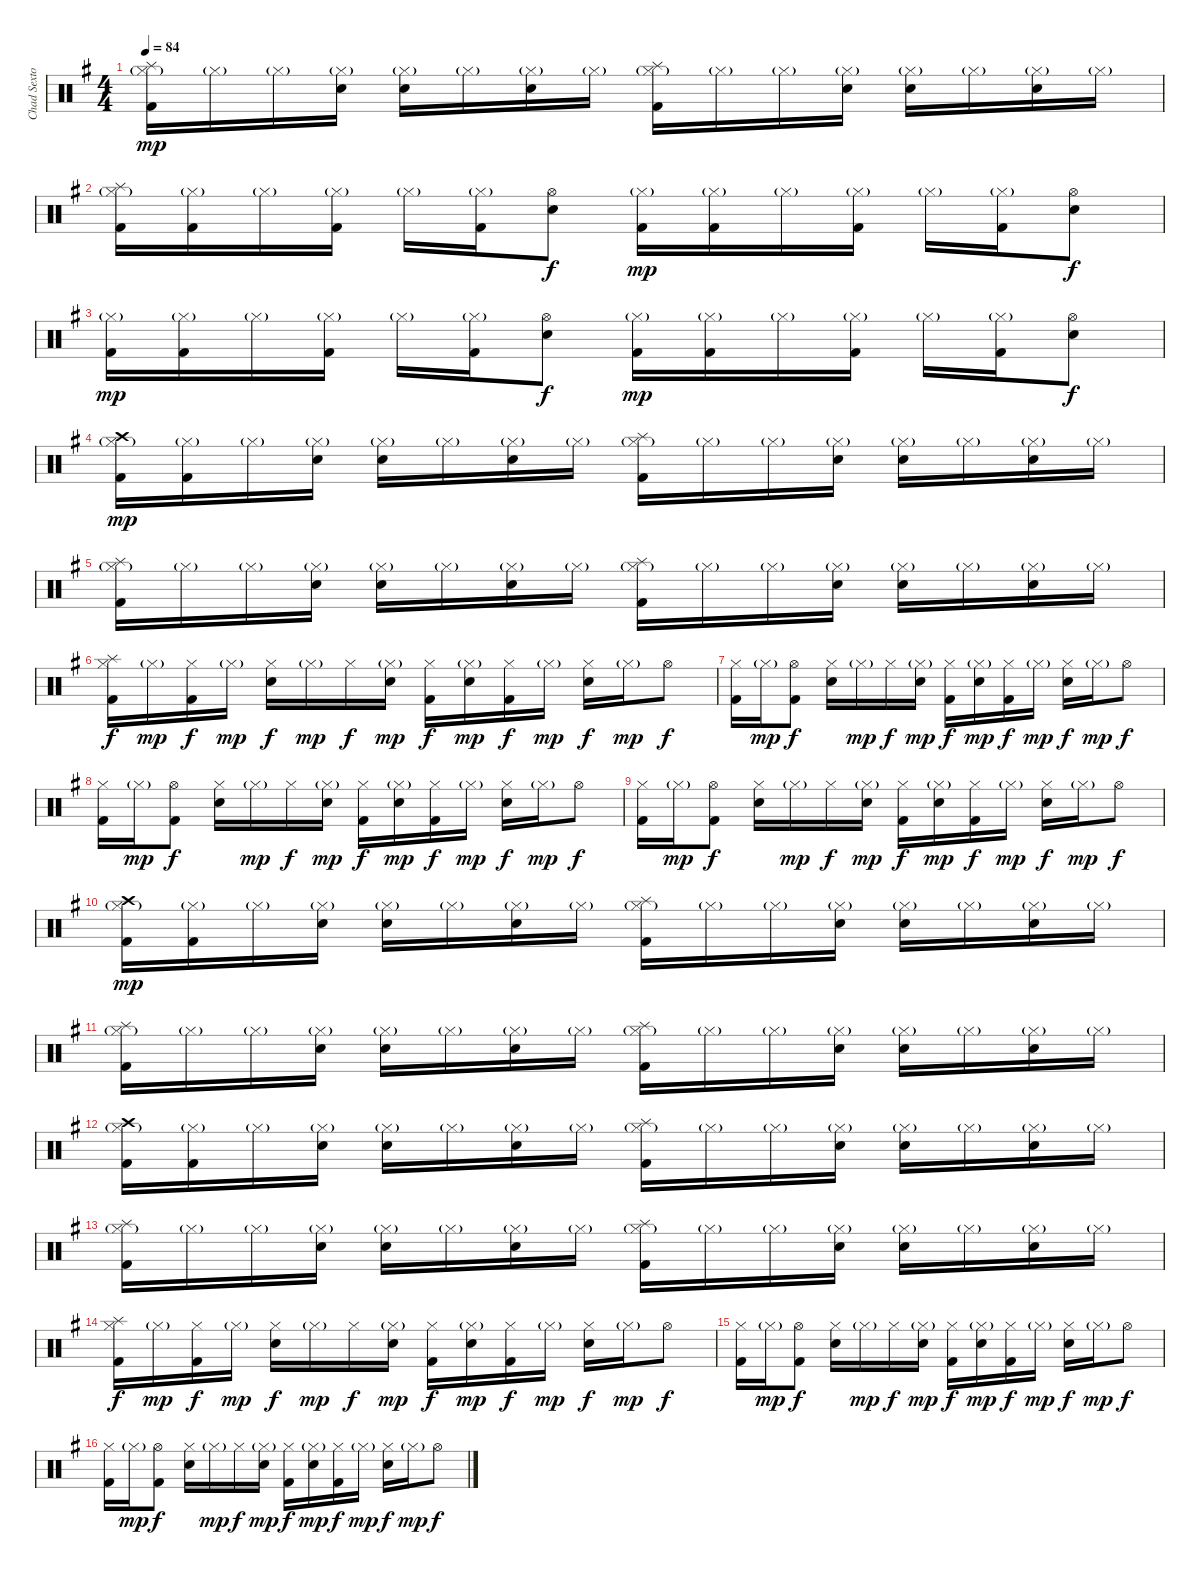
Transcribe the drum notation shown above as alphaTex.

\track ("Chad Sexton (Drums)" "Chad Sexto") {instrument percussion}
\staff {score}
\articulation defaults
\ts (4 4)
\tempo 84
\clef neutral
\ks g
("Splash (hit)" "Hi-Hat (closed)"{g} "Kick (hit) 2").16{dy mp} "Hi-Hat (closed)"{g}.16 "Hi-Hat (closed)"{g}.16 ("Hi-Hat (closed)"{g} "Electric Snare (hit)").16 ("Hi-Hat (closed)"{g} "Snare (hit) 2").16 "Hi-Hat (closed)"{g}.16 ("Hi-Hat (closed)"{g} "Electric Snare (hit)").16 "Hi-Hat (closed)"{g}.16 ("Splash (hit)" "Hi-Hat (closed)"{g} "Kick (hit) 2").16 "Hi-Hat (closed)"{g}.16 "Hi-Hat (closed)"{g}.16 ("Hi-Hat (closed)"{g} "Electric Snare (hit)").16 ("Hi-Hat (closed)"{g} "Snare (hit) 2").16 "Hi-Hat (closed)"{g}.16 ("Hi-Hat (closed)"{g} "Electric Snare (hit)").16 "Hi-Hat (closed)"{g}.16 |
("Splash (hit)" "Hi-Hat (closed)"{g} "Kick (hit) 2").16 ("Hi-Hat (closed)"{g} "Kick (hit) 2").16 "Hi-Hat (closed)"{g}.16 ("Hi-Hat (closed)"{g} "Kick (hit) 2").16 "Hi-Hat (closed)"{g}.16 ("Hi-Hat (closed)"{g} "Kick (hit) 2").16 ("Hi-Hat (open)" "Snare (hit) 2").8{dy f} ("Hi-Hat (closed)"{g} "Kick (hit) 2").16{dy mp} ("Hi-Hat (closed)"{g} "Kick (hit) 2").16 "Hi-Hat (closed)"{g}.16 ("Hi-Hat (closed)"{g} "Kick (hit) 2").16 "Hi-Hat (closed)"{g}.16 ("Hi-Hat (closed)"{g} "Kick (hit) 2").16 ("Hi-Hat (open)" "Snare (hit) 2").8{dy f} |
("Hi-Hat (closed)"{g} "Kick (hit) 2").16{dy mp} ("Hi-Hat (closed)"{g} "Kick (hit) 2").16 "Hi-Hat (closed)"{g}.16 ("Hi-Hat (closed)"{g} "Kick (hit) 2").16 "Hi-Hat (closed)"{g}.16 ("Hi-Hat (closed)"{g} "Kick (hit) 2").16 ("Hi-Hat (open)" "Snare (hit) 2").8{dy f} ("Hi-Hat (closed)"{g} "Kick (hit) 2").16{dy mp} ("Hi-Hat (closed)"{g} "Kick (hit) 2").16 "Hi-Hat (closed)"{g}.16 ("Hi-Hat (closed)"{g} "Kick (hit) 2").16 "Hi-Hat (closed)"{g}.16 ("Hi-Hat (closed)"{g} "Kick (hit) 2").16 ("Hi-Hat (open)" "Snare (hit) 2").8{dy f} |
("Crash high (hit)" "Hi-Hat (closed)"{g} "Kick (hit) 2").16{dy mp} ("Hi-Hat (closed)"{g} "Kick (hit) 2").16 "Hi-Hat (closed)"{g}.16 ("Hi-Hat (closed)"{g} "Electric Snare (hit)").16 ("Hi-Hat (closed)"{g} "Snare (hit) 2").16 "Hi-Hat (closed)"{g}.16 ("Hi-Hat (closed)"{g} "Electric Snare (hit)").16 "Hi-Hat (closed)"{g}.16 ("Splash (hit)" "Hi-Hat (closed)"{g} "Kick (hit) 2").16 "Hi-Hat (closed)"{g}.16 "Hi-Hat (closed)"{g}.16 ("Hi-Hat (closed)"{g} "Electric Snare (hit)").16 ("Hi-Hat (closed)"{g} "Snare (hit) 2").16 "Hi-Hat (closed)"{g}.16 ("Hi-Hat (closed)"{g} "Electric Snare (hit)").16 "Hi-Hat (closed)"{g}.16 |
("Splash (hit)" "Hi-Hat (closed)"{g} "Kick (hit) 2").16 "Hi-Hat (closed)"{g}.16 "Hi-Hat (closed)"{g}.16 ("Hi-Hat (closed)"{g} "Electric Snare (hit)").16 ("Hi-Hat (closed)"{g} "Snare (hit) 2").16 "Hi-Hat (closed)"{g}.16 ("Hi-Hat (closed)"{g} "Electric Snare (hit)").16 "Hi-Hat (closed)"{g}.16 ("Splash (hit)" "Hi-Hat (closed)"{g} "Kick (hit) 2").16 "Hi-Hat (closed)"{g}.16 "Hi-Hat (closed)"{g}.16 ("Hi-Hat (closed)"{g} "Electric Snare (hit)").16 ("Hi-Hat (closed)"{g} "Snare (hit) 2").16 "Hi-Hat (closed)"{g}.16 ("Hi-Hat (closed)"{g} "Electric Snare (hit)").16 "Hi-Hat (closed)"{g}.16 |
("Splash (hit)" "Hi-Hat (closed)" "Kick (hit) 2").16{dy f} "Hi-Hat (closed)"{g}.16{dy mp} ("Hi-Hat (closed)" "Kick (hit) 2").16{dy f} "Hi-Hat (closed)"{g}.16{dy mp} ("Hi-Hat (closed)" "Snare (hit) 2").16{dy f} "Hi-Hat (closed)"{g}.16{dy mp} "Hi-Hat (closed)".16{dy f} ("Hi-Hat (closed)"{g} "Snare (hit) 2").16{dy mp} ("Hi-Hat (closed)" "Kick (hit) 2").16{dy f} ("Hi-Hat (closed)"{g} "Snare (hit) 2").16{dy mp} ("Hi-Hat (closed)" "Kick (hit) 2").16{dy f} "Hi-Hat (closed)"{g}.16{dy mp} ("Hi-Hat (closed)" "Snare (hit) 2").16{dy f} "Hi-Hat (closed)"{g}.16{dy mp} "Hi-Hat (open)".8{dy f} |
("Hi-Hat (closed)" "Kick (hit) 2").16 "Hi-Hat (closed)"{g}.16{dy mp} ("Hi-Hat (open)" "Kick (hit) 2").8{dy f} ("Hi-Hat (closed)" "Snare (hit) 2").16 "Hi-Hat (closed)"{g}.16{dy mp} "Hi-Hat (closed)".16{dy f} ("Hi-Hat (closed)"{g} "Snare (hit) 2").16{dy mp} ("Hi-Hat (closed)" "Kick (hit) 2").16{dy f} ("Hi-Hat (closed)"{g} "Snare (hit) 2").16{dy mp} ("Hi-Hat (closed)" "Kick (hit) 2").16{dy f} "Hi-Hat (closed)"{g}.16{dy mp} ("Hi-Hat (closed)" "Snare (hit) 2").16{dy f} "Hi-Hat (closed)"{g}.16{dy mp} "Hi-Hat (open)".8{dy f} |
("Hi-Hat (closed)" "Kick (hit) 2").16 "Hi-Hat (closed)"{g}.16{dy mp} ("Hi-Hat (open)" "Kick (hit) 2").8{dy f} ("Hi-Hat (closed)" "Snare (hit) 2").16 "Hi-Hat (closed)"{g}.16{dy mp} "Hi-Hat (closed)".16{dy f} ("Hi-Hat (closed)"{g} "Snare (hit) 2").16{dy mp} ("Hi-Hat (closed)" "Kick (hit) 2").16{dy f} ("Hi-Hat (closed)"{g} "Snare (hit) 2").16{dy mp} ("Hi-Hat (closed)" "Kick (hit) 2").16{dy f} "Hi-Hat (closed)"{g}.16{dy mp} ("Hi-Hat (closed)" "Snare (hit) 2").16{dy f} "Hi-Hat (closed)"{g}.16{dy mp} "Hi-Hat (open)".8{dy f} |
("Hi-Hat (closed)" "Kick (hit) 2").16 "Hi-Hat (closed)"{g}.16{dy mp} ("Hi-Hat (open)" "Kick (hit) 2").8{dy f} ("Hi-Hat (closed)" "Snare (hit) 2").16 "Hi-Hat (closed)"{g}.16{dy mp} "Hi-Hat (closed)".16{dy f} ("Hi-Hat (closed)"{g} "Snare (hit) 2").16{dy mp} ("Hi-Hat (closed)" "Kick (hit) 2").16{dy f} ("Hi-Hat (closed)"{g} "Snare (hit) 2").16{dy mp} ("Hi-Hat (closed)" "Kick (hit) 2").16{dy f} "Hi-Hat (closed)"{g}.16{dy mp} ("Hi-Hat (closed)" "Snare (hit) 2").16{dy f} "Hi-Hat (closed)"{g}.16{dy mp} "Hi-Hat (open)".8{dy f} |
("Crash high (hit)" "Hi-Hat (closed)"{g} "Kick (hit) 2").16{dy mp} ("Hi-Hat (closed)"{g} "Kick (hit) 2").16 "Hi-Hat (closed)"{g}.16 ("Hi-Hat (closed)"{g} "Electric Snare (hit)").16 ("Hi-Hat (closed)"{g} "Snare (hit) 2").16 "Hi-Hat (closed)"{g}.16 ("Hi-Hat (closed)"{g} "Electric Snare (hit)").16 "Hi-Hat (closed)"{g}.16 ("Splash (hit)" "Hi-Hat (closed)"{g} "Kick (hit) 2").16 "Hi-Hat (closed)"{g}.16 "Hi-Hat (closed)"{g}.16 ("Hi-Hat (closed)"{g} "Electric Snare (hit)").16 ("Hi-Hat (closed)"{g} "Snare (hit) 2").16 "Hi-Hat (closed)"{g}.16 ("Hi-Hat (closed)"{g} "Electric Snare (hit)").16 "Hi-Hat (closed)"{g}.16 |
("Splash (hit)" "Hi-Hat (closed)"{g} "Kick (hit) 2").16 "Hi-Hat (closed)"{g}.16 "Hi-Hat (closed)"{g}.16 ("Hi-Hat (closed)"{g} "Electric Snare (hit)").16 ("Hi-Hat (closed)"{g} "Snare (hit) 2").16 "Hi-Hat (closed)"{g}.16 ("Hi-Hat (closed)"{g} "Electric Snare (hit)").16 "Hi-Hat (closed)"{g}.16 ("Splash (hit)" "Hi-Hat (closed)"{g} "Kick (hit) 2").16 "Hi-Hat (closed)"{g}.16 "Hi-Hat (closed)"{g}.16 ("Hi-Hat (closed)"{g} "Electric Snare (hit)").16 ("Hi-Hat (closed)"{g} "Snare (hit) 2").16 "Hi-Hat (closed)"{g}.16 ("Hi-Hat (closed)"{g} "Electric Snare (hit)").16 "Hi-Hat (closed)"{g}.16 |
("Crash high (hit)" "Hi-Hat (closed)"{g} "Kick (hit) 2").16 ("Hi-Hat (closed)"{g} "Kick (hit) 2").16 "Hi-Hat (closed)"{g}.16 ("Hi-Hat (closed)"{g} "Electric Snare (hit)").16 ("Hi-Hat (closed)"{g} "Snare (hit) 2").16 "Hi-Hat (closed)"{g}.16 ("Hi-Hat (closed)"{g} "Electric Snare (hit)").16 "Hi-Hat (closed)"{g}.16 ("Splash (hit)" "Hi-Hat (closed)"{g} "Kick (hit) 2").16 "Hi-Hat (closed)"{g}.16 "Hi-Hat (closed)"{g}.16 ("Hi-Hat (closed)"{g} "Electric Snare (hit)").16 ("Hi-Hat (closed)"{g} "Snare (hit) 2").16 "Hi-Hat (closed)"{g}.16 ("Hi-Hat (closed)"{g} "Electric Snare (hit)").16 "Hi-Hat (closed)"{g}.16 |
("Splash (hit)" "Hi-Hat (closed)"{g} "Kick (hit) 2").16 "Hi-Hat (closed)"{g}.16 "Hi-Hat (closed)"{g}.16 ("Hi-Hat (closed)"{g} "Electric Snare (hit)").16 ("Hi-Hat (closed)"{g} "Snare (hit) 2").16 "Hi-Hat (closed)"{g}.16 ("Hi-Hat (closed)"{g} "Electric Snare (hit)").16 "Hi-Hat (closed)"{g}.16 ("Splash (hit)" "Hi-Hat (closed)"{g} "Kick (hit) 2").16 "Hi-Hat (closed)"{g}.16 "Hi-Hat (closed)"{g}.16 ("Hi-Hat (closed)"{g} "Electric Snare (hit)").16 ("Hi-Hat (closed)"{g} "Snare (hit) 2").16 "Hi-Hat (closed)"{g}.16 ("Hi-Hat (closed)"{g} "Electric Snare (hit)").16 "Hi-Hat (closed)"{g}.16 |
("Splash (hit)" "Hi-Hat (closed)" "Kick (hit) 2").16{dy f} "Hi-Hat (closed)"{g}.16{dy mp} ("Hi-Hat (closed)" "Kick (hit) 2").16{dy f} "Hi-Hat (closed)"{g}.16{dy mp} ("Hi-Hat (closed)" "Snare (hit) 2").16{dy f} "Hi-Hat (closed)"{g}.16{dy mp} "Hi-Hat (closed)".16{dy f} ("Hi-Hat (closed)"{g} "Snare (hit) 2").16{dy mp} ("Hi-Hat (closed)" "Kick (hit) 2").16{dy f} ("Hi-Hat (closed)"{g} "Snare (hit) 2").16{dy mp} ("Hi-Hat (closed)" "Kick (hit) 2").16{dy f} "Hi-Hat (closed)"{g}.16{dy mp} ("Hi-Hat (closed)" "Snare (hit) 2").16{dy f} "Hi-Hat (closed)"{g}.16{dy mp} "Hi-Hat (open)".8{dy f} |
("Hi-Hat (closed)" "Kick (hit) 2").16 "Hi-Hat (closed)"{g}.16{dy mp} ("Hi-Hat (open)" "Kick (hit) 2").8{dy f} ("Hi-Hat (closed)" "Snare (hit) 2").16 "Hi-Hat (closed)"{g}.16{dy mp} "Hi-Hat (closed)".16{dy f} ("Hi-Hat (closed)"{g} "Snare (hit) 2").16{dy mp} ("Hi-Hat (closed)" "Kick (hit) 2").16{dy f} ("Hi-Hat (closed)"{g} "Snare (hit) 2").16{dy mp} ("Hi-Hat (closed)" "Kick (hit) 2").16{dy f} "Hi-Hat (closed)"{g}.16{dy mp} ("Hi-Hat (closed)" "Snare (hit) 2").16{dy f} "Hi-Hat (closed)"{g}.16{dy mp} "Hi-Hat (open)".8{dy f} |
("Hi-Hat (closed)" "Kick (hit) 2").16 "Hi-Hat (closed)"{g}.16{dy mp} ("Hi-Hat (open)" "Kick (hit) 2").8{dy f} ("Hi-Hat (closed)" "Snare (hit) 2").16 "Hi-Hat (closed)"{g}.16{dy mp} "Hi-Hat (closed)".16{dy f} ("Hi-Hat (closed)"{g} "Snare (hit) 2").16{dy mp} ("Hi-Hat (closed)" "Kick (hit) 2").16{dy f} ("Hi-Hat (closed)"{g} "Snare (hit) 2").16{dy mp} ("Hi-Hat (closed)" "Kick (hit) 2").16{dy f} "Hi-Hat (closed)"{g}.16{dy mp} ("Hi-Hat (closed)" "Snare (hit) 2").16{dy f} "Hi-Hat (closed)"{g}.16{dy mp} "Hi-Hat (open)".8{dy f}
